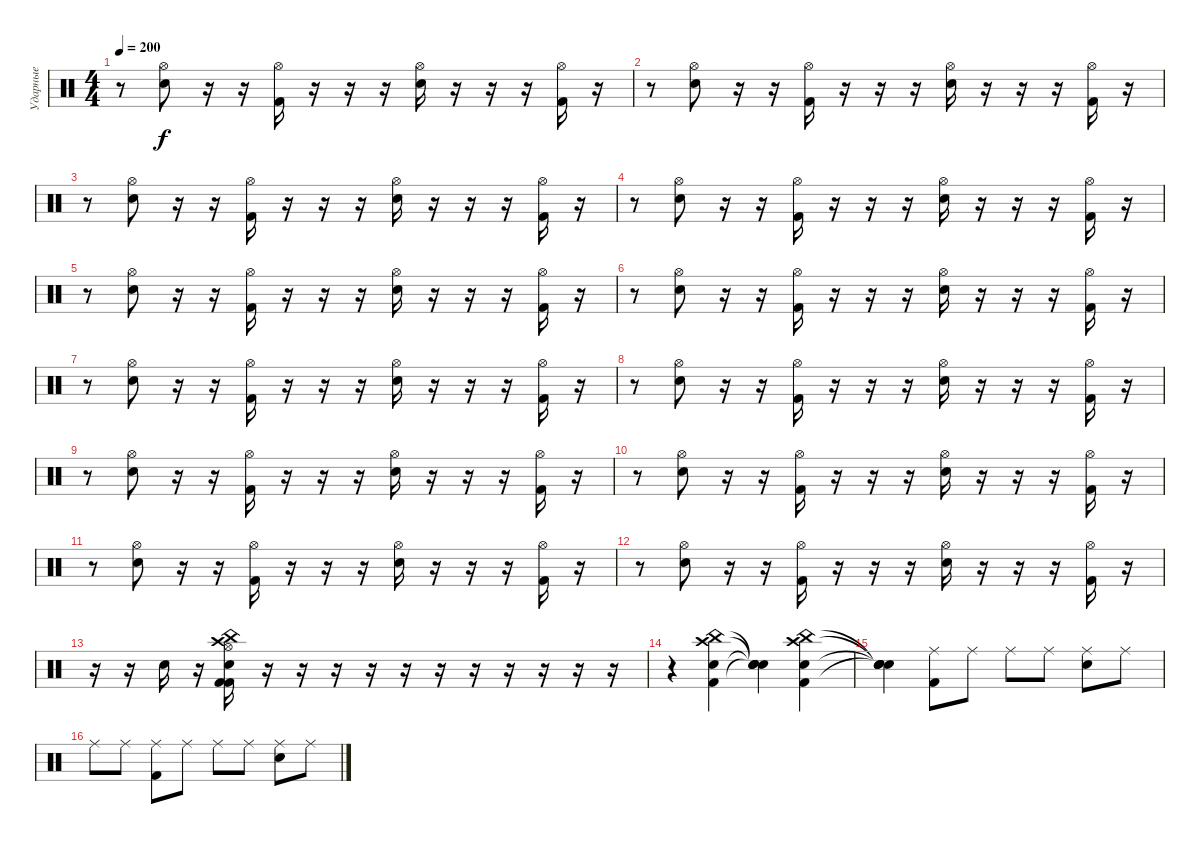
\track ("Ударные" "Ударные") {instrument percussion}
\staff {score}
\articulation defaults
\ts (4 4)
\tempo 200
\clef neutral
\ks c
r.8{dy f} ("Electric Snare (hit)" "Hi-Hat (open)").8 r.16 r.16 ("Kick (hit) 2" "Hi-Hat (open)").16 r.16 r.16 r.16 ("Electric Snare (hit)" "Hi-Hat (open)").16 r.16 r.16 r.16 ("Kick (hit) 2" "Hi-Hat (open)").16 r.16 |
r.8 ("Electric Snare (hit)" "Hi-Hat (open)").8 r.16 r.16 ("Kick (hit) 2" "Hi-Hat (open)").16 r.16 r.16 r.16 ("Electric Snare (hit)" "Hi-Hat (open)").16 r.16 r.16 r.16 ("Kick (hit) 2" "Hi-Hat (open)").16 r.16 |
r.8 ("Electric Snare (hit)" "Hi-Hat (open)").8 r.16 r.16 ("Kick (hit) 2" "Hi-Hat (open)").16 r.16 r.16 r.16 ("Electric Snare (hit)" "Hi-Hat (open)").16 r.16 r.16 r.16 ("Kick (hit) 2" "Hi-Hat (open)").16 r.16 |
r.8 ("Electric Snare (hit)" "Hi-Hat (open)").8 r.16 r.16 ("Kick (hit) 2" "Hi-Hat (open)").16 r.16 r.16 r.16 ("Electric Snare (hit)" "Hi-Hat (open)").16 r.16 r.16 r.16 ("Kick (hit) 2" "Hi-Hat (open)").16 r.16 |
r.8 ("Electric Snare (hit)" "Hi-Hat (open)").8 r.16 r.16 ("Kick (hit) 2" "Hi-Hat (open)").16 r.16 r.16 r.16 ("Electric Snare (hit)" "Hi-Hat (open)").16 r.16 r.16 r.16 ("Kick (hit) 2" "Hi-Hat (open)").16 r.16 |
r.8 ("Electric Snare (hit)" "Hi-Hat (open)").8 r.16 r.16 ("Kick (hit) 2" "Hi-Hat (open)").16 r.16 r.16 r.16 ("Electric Snare (hit)" "Hi-Hat (open)").16 r.16 r.16 r.16 ("Kick (hit) 2" "Hi-Hat (open)").16 r.16 |
r.8 ("Electric Snare (hit)" "Hi-Hat (open)").8 r.16 r.16 ("Kick (hit) 2" "Hi-Hat (open)").16 r.16 r.16 r.16 ("Electric Snare (hit)" "Hi-Hat (open)").16 r.16 r.16 r.16 ("Kick (hit) 2" "Hi-Hat (open)").16 r.16 |
r.8 ("Electric Snare (hit)" "Hi-Hat (open)").8 r.16 r.16 ("Kick (hit) 2" "Hi-Hat (open)").16 r.16 r.16 r.16 ("Electric Snare (hit)" "Hi-Hat (open)").16 r.16 r.16 r.16 ("Kick (hit) 2" "Hi-Hat (open)").16 r.16 |
r.8 ("Electric Snare (hit)" "Hi-Hat (open)").8 r.16 r.16 ("Kick (hit) 2" "Hi-Hat (open)").16 r.16 r.16 r.16 ("Electric Snare (hit)" "Hi-Hat (open)").16 r.16 r.16 r.16 ("Kick (hit) 2" "Hi-Hat (open)").16 r.16 |
r.8 ("Electric Snare (hit)" "Hi-Hat (open)").8 r.16 r.16 ("Kick (hit) 2" "Hi-Hat (open)").16 r.16 r.16 r.16 ("Electric Snare (hit)" "Hi-Hat (open)").16 r.16 r.16 r.16 ("Kick (hit) 2" "Hi-Hat (open)").16 r.16 |
r.8 ("Electric Snare (hit)" "Hi-Hat (open)").8 r.16 r.16 ("Kick (hit) 2" "Hi-Hat (open)").16 r.16 r.16 r.16 ("Electric Snare (hit)" "Hi-Hat (open)").16 r.16 r.16 r.16 ("Kick (hit) 2" "Hi-Hat (open)").16 r.16 |
r.8 ("Electric Snare (hit)" "Hi-Hat (open)").8 r.16 r.16 ("Kick (hit) 2" "Hi-Hat (open)").16 r.16 r.16 r.16 ("Electric Snare (hit)" "Hi-Hat (open)").16 r.16 r.16 r.16 ("Kick (hit) 2" "Hi-Hat (open)").16 r.16 |
r.16 r.16 "Electric Snare (hit)".16 r.16 ("Kick (hit) 2" "Hi-Hat (open)" "Kick (hit) 2" "Electric Snare (hit)" "Crash high (hit)" "China (hit)").16 r.16 r.16 r.16 r.16 r.16 r.16 r.16 r.16 r.16 r.16 r.16 |
r.4 ("China (hit)" "Crash high (hit)" "Kick (hit) 2" "Electric Snare (hit)").4 ("Snare (hit)"{t} "Snare (hit)"{t} "Snare (hit)"{t} "Snare (hit)"{t}).4 ("Electric Snare (hit)" "Kick (hit) 2" "Crash high (hit)" "China (hit)").4 |
("Snare (hit)"{t} "Snare (hit)"{t} "Snare (hit)"{t} "Snare (hit)"{t}).4 ("Kick (hit) 2" "Ride (middle)").8 "Ride (middle)".8 "Ride (middle)".8 "Ride (middle)".8 ("Electric Snare (hit)" "Ride (middle)").8 "Ride (middle)".8 |
"Ride (middle)".8 "Ride (middle)".8 ("Kick (hit) 2" "Ride (middle)").8 "Ride (middle)".8 "Ride (middle)".8 "Ride (middle)".8 ("Electric Snare (hit)" "Ride (middle)").8 "Ride (middle)".8
